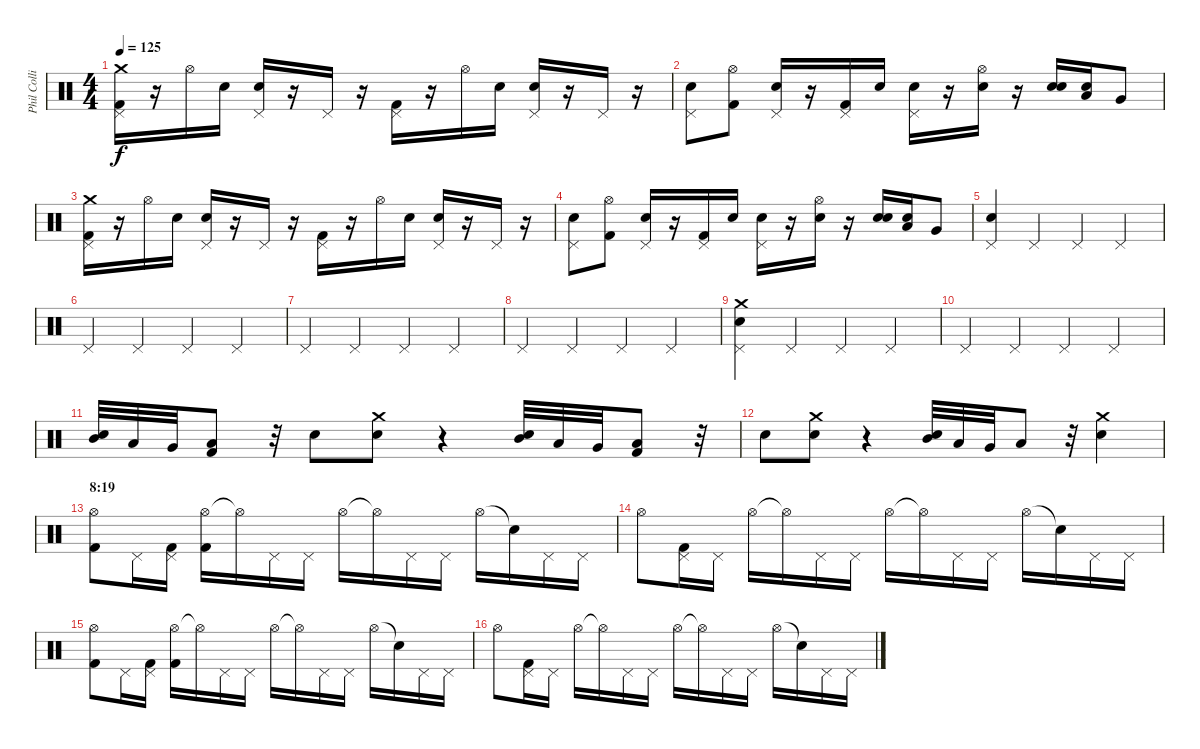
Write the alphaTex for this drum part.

\track ("Phil Collins (drums)" "Phil Colli") {instrument percussion}
\staff {score}
\articulation defaults
\ts (4 4)
\tempo 125
\clef neutral
\ks c
("Crash medium (hit)" "Pedal Hi-Hat (hit)" "Kick (hit) 2").16{dy f} r.16 "Hi-Hat (open)".16 "Electric Snare (hit)".16 ("Pedal Hi-Hat (hit)" "Electric Snare (hit)").16 r.16 "Pedal Hi-Hat (hit)".16 r.16 ("Pedal Hi-Hat (hit)" "Kick (hit) 2").16 r.16 "Hi-Hat (open)".16 "Electric Snare (hit)".16 ("Pedal Hi-Hat (hit)" "Electric Snare (hit)").16 r.16 "Pedal Hi-Hat (hit)".16 r.16 |
("Pedal Hi-Hat (hit)" "Electric Snare (hit)").8 ("Hi-Hat (open)" "Kick (hit) 2").8 ("Pedal Hi-Hat (hit)" "Electric Snare (hit)").16 r.16 ("Pedal Hi-Hat (hit)" "Kick (hit) 2").16 "Electric Snare (hit)".16 ("Pedal Hi-Hat (hit)" "Electric Snare (hit)").16 r.16 ("Hi-Hat (open)" "Electric Snare (hit)").16 r.16 ("Electric Snare (hit)" "Electric Snare (hit)").16 ("Low Tom (hit)" "Electric Snare (hit)").16 "Very Low Tom (hit)".8 |
("Crash medium (hit)" "Pedal Hi-Hat (hit)" "Kick (hit) 2").16 r.16 "Hi-Hat (open)".16 "Electric Snare (hit)".16 ("Pedal Hi-Hat (hit)" "Electric Snare (hit)").16 r.16 "Pedal Hi-Hat (hit)".16 r.16 ("Pedal Hi-Hat (hit)" "Kick (hit) 2").16 r.16 "Hi-Hat (open)".16 "Electric Snare (hit)".16 ("Pedal Hi-Hat (hit)" "Electric Snare (hit)").16 r.16 "Pedal Hi-Hat (hit)".16 r.16 |
("Pedal Hi-Hat (hit)" "Electric Snare (hit)").8 ("Hi-Hat (open)" "Kick (hit) 2").8 ("Pedal Hi-Hat (hit)" "Electric Snare (hit)").16 r.16 ("Pedal Hi-Hat (hit)" "Kick (hit) 2").16 "Electric Snare (hit)".16 ("Pedal Hi-Hat (hit)" "Electric Snare (hit)").16 r.16 ("Hi-Hat (open)" "Electric Snare (hit)").16 r.16 ("Electric Snare (hit)" "Electric Snare (hit)").16 ("Low Tom (hit)" "Electric Snare (hit)").16 "Very Low Tom (hit)".8 |
("Pedal Hi-Hat (hit)" "Electric Snare (hit)").4 "Pedal Hi-Hat (hit)".4 "Pedal Hi-Hat (hit)".4 "Pedal Hi-Hat (hit)".4 |
"Pedal Hi-Hat (hit)".4 "Pedal Hi-Hat (hit)".4 "Pedal Hi-Hat (hit)".4 "Pedal Hi-Hat (hit)".4 |
"Pedal Hi-Hat (hit)".4 "Pedal Hi-Hat (hit)".4 "Pedal Hi-Hat (hit)".4 "Pedal Hi-Hat (hit)".4 |
"Pedal Hi-Hat (hit)".4 "Pedal Hi-Hat (hit)".4 "Pedal Hi-Hat (hit)".4 "Pedal Hi-Hat (hit)".4 |
("Crash medium (hit)" "Pedal Hi-Hat (hit)" "Electric Snare (hit)").4 "Pedal Hi-Hat (hit)".4 "Pedal Hi-Hat (hit)".4 "Pedal Hi-Hat (hit)".4 |
"Pedal Hi-Hat (hit)".4 "Pedal Hi-Hat (hit)".4 "Pedal Hi-Hat (hit)".4 "Pedal Hi-Hat (hit)".4 |
("Mid Tom (hit)" "Electric Snare (hit)").32 "Low Tom (hit)".32 "Very Low Tom (hit)".32 ("Low Floor Tom (hit)" "Kick (hit) 2").8 r.32 "Electric Snare (hit)".8 ("Crash medium (hit)" "Electric Snare (hit)").8 r.4 ("Mid Tom (hit)" "Electric Snare (hit)").32 "Low Tom (hit)".32 "Very Low Tom (hit)".32 ("Low Floor Tom (hit)" "Kick (hit) 2").8 r.32 |
"Electric Snare (hit)".8 ("Crash medium (hit)" "Electric Snare (hit)").8 r.4 ("Mid Tom (hit)" "Electric Snare (hit)").32 "Low Tom (hit)".32 "Very Low Tom (hit)".32 "Low Floor Tom (hit)".8 r.32 ("Crash medium (hit)" "Electric Snare (hit)").4 |
\section ("" "8:19")
("Hi-Hat (open)" "Kick (hit) 2").8 "Pedal Hi-Hat (hit)".16 ("Pedal Hi-Hat (hit)" "Kick (hit) 2").16 ("Hi-Hat (open)" "Kick (hit) 2").16 "Hi-Hat (open)"{t}.16 "Pedal Hi-Hat (hit)".16 "Pedal Hi-Hat (hit)".16 "Hi-Hat (open)".16 "Hi-Hat (open)"{t}.16 "Pedal Hi-Hat (hit)".16 "Pedal Hi-Hat (hit)".16 "Hi-Hat (open)".16 "Snare (hit)"{t}.16 "Pedal Hi-Hat (hit)".16 "Pedal Hi-Hat (hit)".16 |
"Hi-Hat (open)".8 ("Pedal Hi-Hat (hit)" "Kick (hit) 2").16 "Pedal Hi-Hat (hit)".16 "Hi-Hat (open)".16 "Hi-Hat (open)"{t}.16 "Pedal Hi-Hat (hit)".16 "Pedal Hi-Hat (hit)".16 "Hi-Hat (open)".16 "Hi-Hat (open)"{t}.16 "Pedal Hi-Hat (hit)".16 "Pedal Hi-Hat (hit)".16 "Hi-Hat (open)".16 "Snare (hit)"{t}.16 "Pedal Hi-Hat (hit)".16 "Pedal Hi-Hat (hit)".16 |
("Hi-Hat (open)" "Kick (hit) 2").8 "Pedal Hi-Hat (hit)".16 ("Pedal Hi-Hat (hit)" "Kick (hit) 2").16 ("Hi-Hat (open)" "Kick (hit) 2").16 "Hi-Hat (open)"{t}.16 "Pedal Hi-Hat (hit)".16 "Pedal Hi-Hat (hit)".16 "Hi-Hat (open)".16 "Hi-Hat (open)"{t}.16 "Pedal Hi-Hat (hit)".16 "Pedal Hi-Hat (hit)".16 "Hi-Hat (open)".16 "Snare (hit)"{t}.16 "Pedal Hi-Hat (hit)".16 "Pedal Hi-Hat (hit)".16 |
"Hi-Hat (open)".8 ("Pedal Hi-Hat (hit)" "Kick (hit) 2").16 "Pedal Hi-Hat (hit)".16 "Hi-Hat (open)".16 "Hi-Hat (open)"{t}.16 "Pedal Hi-Hat (hit)".16 "Pedal Hi-Hat (hit)".16 "Hi-Hat (open)".16 "Hi-Hat (open)"{t}.16 "Pedal Hi-Hat (hit)".16 "Pedal Hi-Hat (hit)".16 "Hi-Hat (open)".16 "Snare (hit)"{t}.16 "Pedal Hi-Hat (hit)".16 "Pedal Hi-Hat (hit)".16
